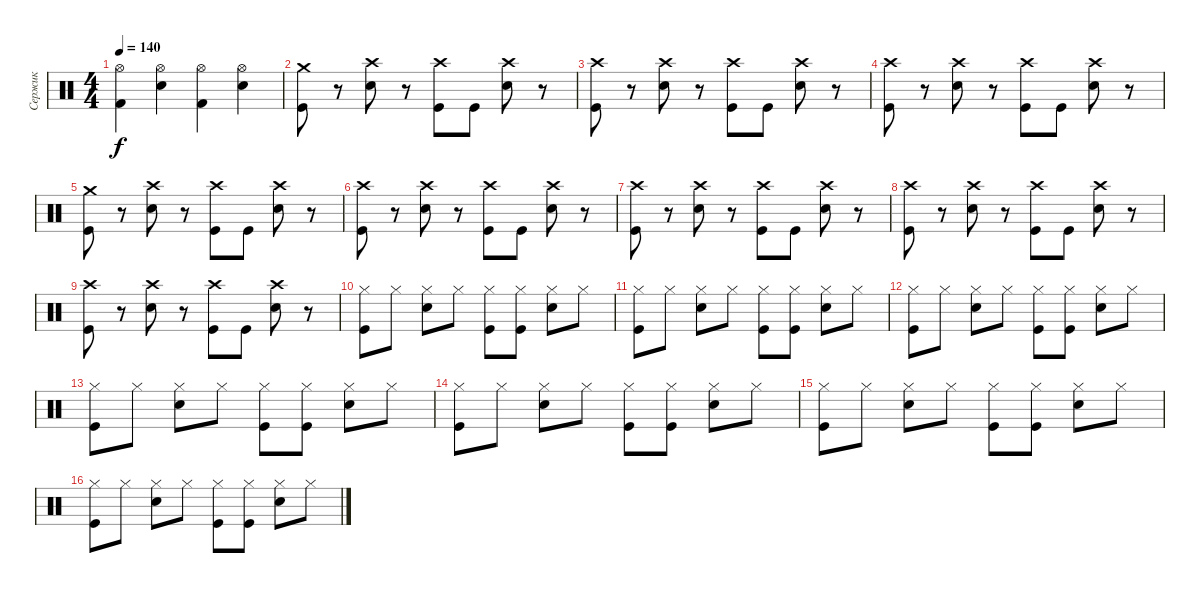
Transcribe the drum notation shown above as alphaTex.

\track ("Сержик" "Сержик") {instrument percussion}
\staff {score}
\articulation defaults
\ts (4 4)
\tempo 140
\clef neutral
\ks c
("Hi-Hat (open)" "Kick (hit) 2").4{dy f} ("Hi-Hat (open)" "Electric Snare (hit)").4 ("Hi-Hat (open)" "Kick (hit) 2").4 ("Hi-Hat (open)" "Electric Snare (hit)").4 |
("Crash medium (hit)" "Kick (hit)").8 r.8 ("Crash high (hit)" "Electric Snare (hit)").8 r.8 ("Crash high (hit)" "Kick (hit)").8 "Kick (hit)".8 ("Crash high (hit)" "Electric Snare (hit)").8 r.8 |
("Crash high (hit)" "Kick (hit)").8 r.8 ("Crash high (hit)" "Electric Snare (hit)").8 r.8 ("Crash high (hit)" "Kick (hit)").8 "Kick (hit)".8 ("Crash high (hit)" "Electric Snare (hit)").8 r.8 |
("Crash high (hit)" "Kick (hit)").8 r.8 ("Crash high (hit)" "Electric Snare (hit)").8 r.8 ("Crash high (hit)" "Kick (hit)").8 "Kick (hit)".8 ("Crash high (hit)" "Electric Snare (hit)").8 r.8 |
("Crash medium (hit)" "Kick (hit)").8 r.8 ("Crash high (hit)" "Electric Snare (hit)").8 r.8 ("Crash high (hit)" "Kick (hit)").8 "Kick (hit)".8 ("Crash high (hit)" "Electric Snare (hit)").8 r.8 |
("Crash high (hit)" "Kick (hit)").8 r.8 ("Crash high (hit)" "Electric Snare (hit)").8 r.8 ("Crash high (hit)" "Kick (hit)").8 "Kick (hit)".8 ("Crash high (hit)" "Electric Snare (hit)").8 r.8 |
("Crash high (hit)" "Kick (hit)").8 r.8 ("Crash high (hit)" "Electric Snare (hit)").8 r.8 ("Crash high (hit)" "Kick (hit)").8 "Kick (hit)".8 ("Crash high (hit)" "Electric Snare (hit)").8 r.8 |
("Crash high (hit)" "Kick (hit)").8 r.8 ("Crash high (hit)" "Electric Snare (hit)").8 r.8 ("Crash high (hit)" "Kick (hit)").8 "Kick (hit)".8 ("Crash high (hit)" "Electric Snare (hit)").8 r.8 |
("Crash high (hit)" "Kick (hit)").8 r.8 ("Crash high (hit)" "Electric Snare (hit)").8 r.8 ("Crash high (hit)" "Kick (hit)").8 "Kick (hit)".8 ("Crash high (hit)" "Electric Snare (hit)").8 r.8 |
("Hi-Hat (closed)" "Kick (hit)").8 "Hi-Hat (closed)".8 ("Hi-Hat (closed)" "Electric Snare (hit)").8 "Hi-Hat (closed)".8 ("Hi-Hat (closed)" "Kick (hit)").8 ("Hi-Hat (closed)" "Kick (hit)").8 ("Hi-Hat (closed)" "Electric Snare (hit)").8 "Hi-Hat (closed)".8 |
("Hi-Hat (closed)" "Kick (hit)").8 "Hi-Hat (closed)".8 ("Hi-Hat (closed)" "Electric Snare (hit)").8 "Hi-Hat (closed)".8 ("Hi-Hat (closed)" "Kick (hit)").8 ("Hi-Hat (closed)" "Kick (hit)").8 ("Hi-Hat (closed)" "Electric Snare (hit)").8 "Hi-Hat (closed)".8 |
("Hi-Hat (closed)" "Kick (hit)").8 "Hi-Hat (closed)".8 ("Hi-Hat (closed)" "Electric Snare (hit)").8 "Hi-Hat (closed)".8 ("Hi-Hat (closed)" "Kick (hit)").8 ("Hi-Hat (closed)" "Kick (hit)").8 ("Hi-Hat (closed)" "Electric Snare (hit)").8 "Hi-Hat (closed)".8 |
("Hi-Hat (closed)" "Kick (hit)").8 "Hi-Hat (closed)".8 ("Hi-Hat (closed)" "Electric Snare (hit)").8 "Hi-Hat (closed)".8 ("Hi-Hat (closed)" "Kick (hit)").8 ("Hi-Hat (closed)" "Kick (hit)").8 ("Hi-Hat (closed)" "Electric Snare (hit)").8 "Hi-Hat (closed)".8 |
("Hi-Hat (closed)" "Kick (hit)").8 "Hi-Hat (closed)".8 ("Hi-Hat (closed)" "Electric Snare (hit)").8 "Hi-Hat (closed)".8 ("Hi-Hat (closed)" "Kick (hit)").8 ("Hi-Hat (closed)" "Kick (hit)").8 ("Hi-Hat (closed)" "Electric Snare (hit)").8 "Hi-Hat (closed)".8 |
("Hi-Hat (closed)" "Kick (hit)").8 "Hi-Hat (closed)".8 ("Hi-Hat (closed)" "Electric Snare (hit)").8 "Hi-Hat (closed)".8 ("Hi-Hat (closed)" "Kick (hit)").8 ("Hi-Hat (closed)" "Kick (hit)").8 ("Hi-Hat (closed)" "Electric Snare (hit)").8 "Hi-Hat (closed)".8 |
("Hi-Hat (closed)" "Kick (hit)").8 "Hi-Hat (closed)".8 ("Hi-Hat (closed)" "Electric Snare (hit)").8 "Hi-Hat (closed)".8 ("Hi-Hat (closed)" "Kick (hit)").8 ("Hi-Hat (closed)" "Kick (hit)").8 ("Hi-Hat (closed)" "Electric Snare (hit)").8 "Hi-Hat (closed)".8
